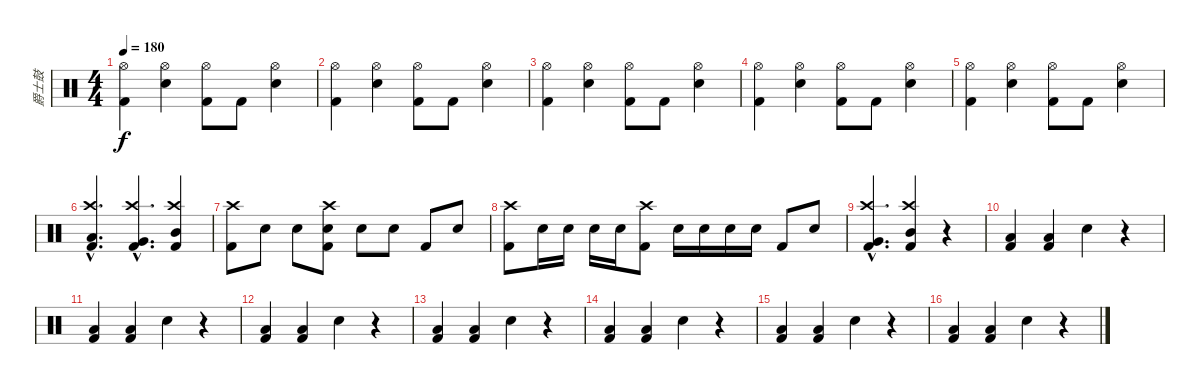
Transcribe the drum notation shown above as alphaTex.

\track ("爵士鼓" "爵士鼓") {instrument percussion}
\staff {score}
\articulation defaults
\ts (4 4)
\tempo 180
\clef neutral
\ks c
("Hi-Hat (open)" "Kick (hit) 2").4{dy f} ("Hi-Hat (open)" "Snare (hit) 2").4 ("Hi-Hat (open)" "Kick (hit) 2").8 "Kick (hit) 2".8 ("Hi-Hat (open)" "Snare (hit) 2").4 |
("Hi-Hat (open)" "Kick (hit) 2").4 ("Hi-Hat (open)" "Snare (hit) 2").4 ("Hi-Hat (open)" "Kick (hit) 2").8 "Kick (hit) 2".8 ("Hi-Hat (open)" "Snare (hit) 2").4 |
("Hi-Hat (open)" "Kick (hit) 2").4 ("Hi-Hat (open)" "Snare (hit) 2").4 ("Hi-Hat (open)" "Kick (hit) 2").8 "Kick (hit) 2".8 ("Hi-Hat (open)" "Snare (hit) 2").4 |
("Hi-Hat (open)" "Kick (hit) 2").4 ("Hi-Hat (open)" "Snare (hit) 2").4 ("Hi-Hat (open)" "Kick (hit) 2").8 "Kick (hit) 2".8 ("Hi-Hat (open)" "Snare (hit) 2").4 |
("Hi-Hat (open)" "Kick (hit) 2").4 ("Hi-Hat (open)" "Snare (hit) 2").4 ("Hi-Hat (open)" "Kick (hit) 2").8 "Kick (hit) 2".8 ("Hi-Hat (open)" "Snare (hit) 2").4 |
("Crash high (hit)"{hac} "Low Tom (hit)"{hac} "Kick (hit) 2"{hac}).4{d} ("Crash high (hit)"{hac} "Very Low Tom (hit)"{hac} "Kick (hit) 2"{hac}).4{d} ("Crash high (hit)" "Mid Tom (hit)" "Kick (hit) 2").4 |
("Crash high (hit)" "Kick (hit) 2").8 "Snare (hit) 2".8 "Snare (hit) 2".8 ("Crash high (hit)" "Snare (hit) 2" "Kick (hit) 2").8 "Snare (hit) 2".8 "Snare (hit) 2".8 "Kick (hit) 2".8 "Snare (hit) 2".8 |
("Crash high (hit)" "Kick (hit) 2").8 "Snare (hit) 2".16 "Snare (hit) 2".16 "Snare (hit) 2".16 "Snare (hit) 2".16 ("Crash high (hit)" "Kick (hit) 2").8 "Snare (hit) 2".16 "Snare (hit) 2".16 "Snare (hit) 2".16 "Snare (hit) 2".16 "Kick (hit) 2".8 "Snare (hit) 2".8 |
("Crash high (hit)"{hac} "Very Low Tom (hit)"{hac} "Kick (hit) 2"{hac}).4{d} ("Crash high (hit)" "Mid Tom (hit)" "Kick (hit) 2").4 r.4 |
("Low Tom (hit)" "Kick (hit) 2").4 ("Low Tom (hit)" "Kick (hit) 2").4 "Snare (hit) 2".4 r.4 |
("Low Tom (hit)" "Kick (hit) 2").4 ("Low Tom (hit)" "Kick (hit) 2").4 "Snare (hit) 2".4 r.4 |
("Low Tom (hit)" "Kick (hit) 2").4 ("Low Tom (hit)" "Kick (hit) 2").4 "Snare (hit) 2".4 r.4 |
("Low Tom (hit)" "Kick (hit) 2").4 ("Low Tom (hit)" "Kick (hit) 2").4 "Snare (hit) 2".4 r.4 |
("Low Tom (hit)" "Kick (hit) 2").4 ("Low Tom (hit)" "Kick (hit) 2").4 "Snare (hit) 2".4 r.4 |
("Low Tom (hit)" "Kick (hit) 2").4 ("Low Tom (hit)" "Kick (hit) 2").4 "Snare (hit) 2".4 r.4 |
("Low Tom (hit)" "Kick (hit) 2").4 ("Low Tom (hit)" "Kick (hit) 2").4 "Snare (hit) 2".4 r.4
